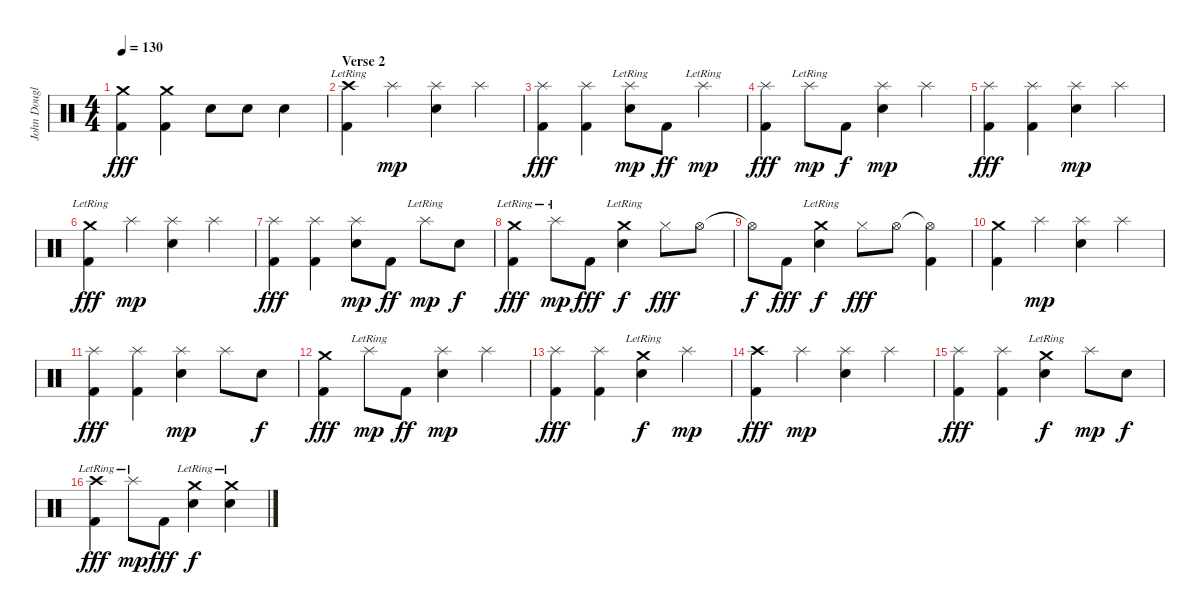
\track ("John Douglas (Drums)" "John Dougl") {instrument percussion}
\staff {score}
\articulation defaults
\ts (4 4)
\tempo 130
\clef neutral
\ks c
("Crash medium (hit)" "Kick (hit) 2").4{dy fff} ("Crash medium (hit)" "Kick (hit) 2").4 "Snare (hit) 2".8 "Snare (hit) 2".8 "Snare (hit) 2".4 |
\section ("" "Verse 2")
("Crash high (hit)"{lr} "Kick (hit) 2").4 "Splash (hit)".4{dy mp} ("Splash (hit)" "Snare (hit) 2").4 "Splash (hit)".4 |
("Splash (hit)" "Kick (hit) 2").4{dy fff} ("Splash (hit)" "Kick (hit) 2").4 ("Splash (hit)"{lr} "Snare (hit) 2").8{dy mp} "Kick (hit) 2".8{dy ff} "Splash (hit)"{lr}.4{dy mp} |
("Splash (hit)" "Kick (hit) 2").4{dy fff} "Splash (hit)"{lr}.8{dy mp} "Kick (hit) 2".8{dy f} ("Splash (hit)" "Snare (hit) 2").4{dy mp} "Splash (hit)".4 |
("Splash (hit)" "Kick (hit) 2").4{dy fff} ("Splash (hit)" "Kick (hit) 2").4 ("Splash (hit)" "Snare (hit) 2").4{dy mp} "Splash (hit)".4 |
("Crash medium (hit)"{lr} "Kick (hit) 2").4{dy fff} "Splash (hit)".4{dy mp} ("Splash (hit)" "Snare (hit) 2").4 "Splash (hit)".4 |
("Splash (hit)" "Kick (hit) 2").4{dy fff} ("Splash (hit)" "Kick (hit) 2").4 ("Splash (hit)" "Snare (hit) 2").8{dy mp} "Kick (hit) 2".8{dy ff} "Splash (hit)"{lr}.8{dy mp} "Snare (hit) 2".8{dy f} |
("Crash medium (hit)"{lr} "Kick (hit) 2").4{dy fff} "Splash (hit)"{lr}.8{dy mp} "Kick (hit) 2".8{dy fff} ("Crash medium (hit)"{lr} "Snare (hit) 2").4{dy f} "Hi-Hat (closed)".8{dy fff} "Hi-Hat (open)".8 |
"Hi-Hat (open)"{t}.8{dy f} "Kick (hit) 2".8{dy fff} ("Crash medium (hit)"{lr} "Snare (hit) 2").4{dy f} "Hi-Hat (closed)".8{dy fff} "Hi-Hat (open)".8 ("Hi-Hat (open)"{t} "Kick (hit) 2").4 |
("Crash medium (hit)" "Kick (hit) 2").4 "Splash (hit)".4{dy mp} ("Splash (hit)" "Snare (hit) 2").4 "Splash (hit)".4 |
("Splash (hit)" "Kick (hit) 2").4{dy fff} ("Splash (hit)" "Kick (hit) 2").4 ("Splash (hit)" "Snare (hit) 2").4{dy mp} "Splash (hit)".8 "Snare (hit) 2".8{dy f} |
("Crash medium (hit)" "Kick (hit) 2").4{dy fff} "Splash (hit)"{lr}.8{dy mp} "Kick (hit) 2".8{dy ff} ("Splash (hit)" "Snare (hit) 2").4{dy mp} "Splash (hit)".4 |
("Splash (hit)" "Kick (hit) 2").4{dy fff} ("Splash (hit)" "Kick (hit) 2").4 ("Crash medium (hit)"{lr} "Snare (hit) 2").4{dy f} "Splash (hit)".4{dy mp} |
("Crash high (hit)" "Kick (hit) 2").4{dy fff} "Splash (hit)".4{dy mp} ("Splash (hit)" "Snare (hit) 2").4 "Splash (hit)".4 |
("Splash (hit)" "Kick (hit) 2").4{dy fff} ("Splash (hit)" "Kick (hit) 2").4 ("Crash medium (hit)"{lr} "Snare (hit) 2").4{dy f} "Splash (hit)".8{dy mp} "Snare (hit) 2".8{dy f} |
("Crash high (hit)"{lr} "Kick (hit) 2").4{dy fff} "Splash (hit)"{lr}.8{dy mp} "Kick (hit) 2".8{dy fff} ("Crash medium (hit)"{lr} "Snare (hit) 2").4{dy f} ("Crash medium (hit)"{lr} "Snare (hit) 2").4
